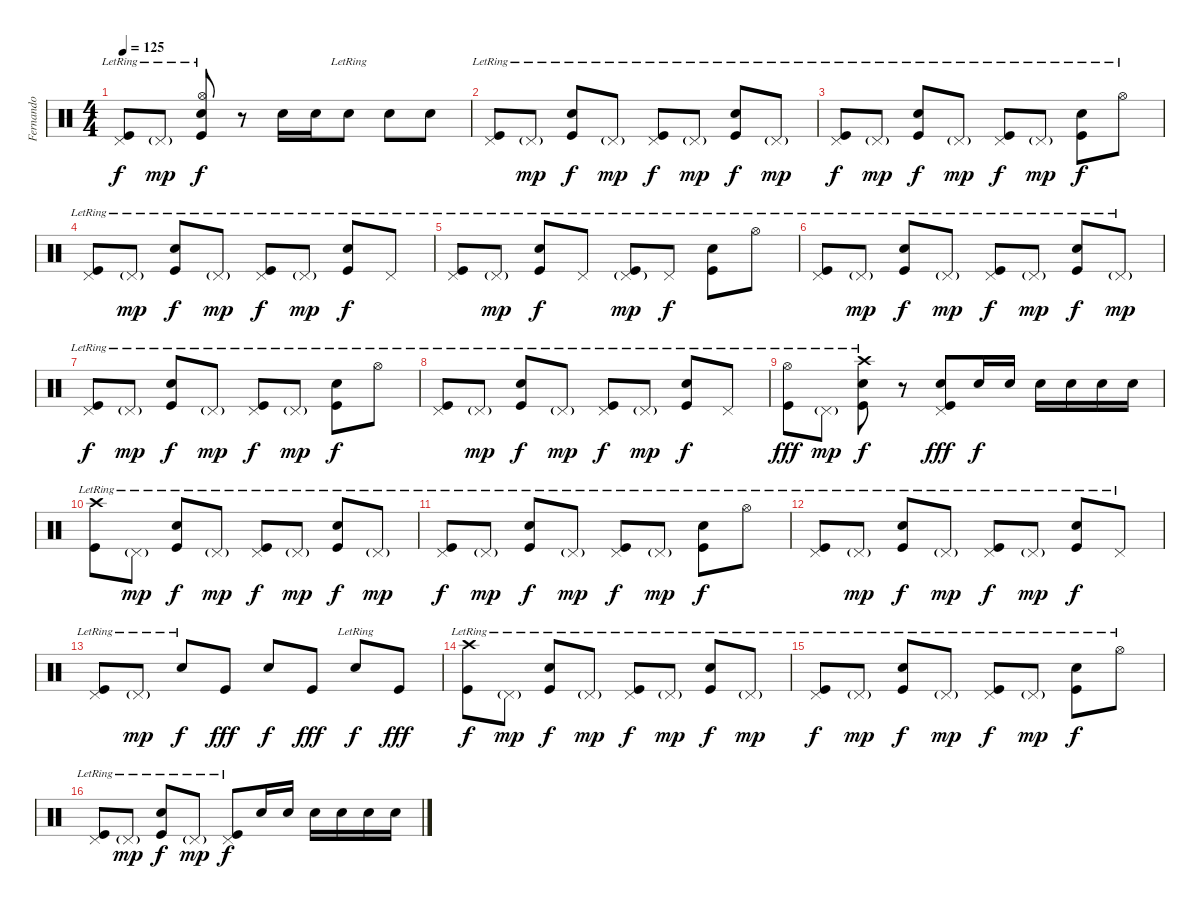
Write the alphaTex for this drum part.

\track ("Fernando" "Fernando") {instrument percussion}
\staff {score}
\articulation defaults
\ts (4 4)
\tempo 125
\clef neutral
\ks c
("Pedal Hi-Hat (hit)"{lr} "Kick (hit)"{lr}).8{dy f} "Pedal Hi-Hat (hit)"{g lr}.8{dy mp} ("Hi-Hat (open)" "Electric Snare (hit)"{lr} "Kick (hit)"{lr}).8{dy f} r.8 "Electric Snare (hit)".16 "Electric Snare (hit)".16 "Electric Snare (hit)"{lr}.8 "Electric Snare (hit)".8 "Electric Snare (hit)".8 |
("Pedal Hi-Hat (hit)"{lr} "Kick (hit)"{lr}).8 "Pedal Hi-Hat (hit)"{g lr}.8{dy mp} ("Electric Snare (hit)"{lr} "Kick (hit)"{lr}).8{dy f} "Pedal Hi-Hat (hit)"{g lr}.8{dy mp} ("Pedal Hi-Hat (hit)"{lr} "Kick (hit)"{lr}).8{dy f} "Pedal Hi-Hat (hit)"{g lr}.8{dy mp} ("Electric Snare (hit)"{lr} "Kick (hit)"{lr}).8{dy f} "Pedal Hi-Hat (hit)"{g lr}.8{dy mp} |
("Pedal Hi-Hat (hit)"{lr} "Kick (hit)"{lr}).8{dy f} "Pedal Hi-Hat (hit)"{g lr}.8{dy mp} ("Electric Snare (hit)"{lr} "Kick (hit)"{lr}).8{dy f} "Pedal Hi-Hat (hit)"{g lr}.8{dy mp} ("Pedal Hi-Hat (hit)"{lr} "Kick (hit)"{lr}).8{dy f} "Pedal Hi-Hat (hit)"{g lr}.8{dy mp} ("Electric Snare (hit)"{lr} "Kick (hit)"{lr}).8{dy f} "Hi-Hat (open)"{lr}.8 |
("Pedal Hi-Hat (hit)"{lr} "Kick (hit)"{lr}).8 "Pedal Hi-Hat (hit)"{g lr}.8{dy mp} ("Electric Snare (hit)"{lr} "Kick (hit)"{lr}).8{dy f} "Pedal Hi-Hat (hit)"{g lr}.8{dy mp} ("Pedal Hi-Hat (hit)"{lr} "Kick (hit)"{lr}).8{dy f} "Pedal Hi-Hat (hit)"{g lr}.8{dy mp} ("Electric Snare (hit)"{lr} "Kick (hit)"{lr}).8{dy f} "Pedal Hi-Hat (hit)"{lr}.8 |
("Pedal Hi-Hat (hit)"{lr} "Kick (hit)"{lr}).8 "Pedal Hi-Hat (hit)"{g lr}.8{dy mp} ("Electric Snare (hit)"{lr} "Kick (hit)"{lr}).8{dy f} "Pedal Hi-Hat (hit)"{lr}.8 ("Pedal Hi-Hat (hit)"{g lr} "Kick (hit)"{lr}).8{dy mp} "Pedal Hi-Hat (hit)"{lr}.8{dy f} ("Electric Snare (hit)"{lr} "Kick (hit)"{lr}).8 "Hi-Hat (open)"{lr}.8 |
("Pedal Hi-Hat (hit)"{lr} "Kick (hit)"{lr}).8 "Pedal Hi-Hat (hit)"{g lr}.8{dy mp} ("Electric Snare (hit)"{lr} "Kick (hit)"{lr}).8{dy f} "Pedal Hi-Hat (hit)"{g lr}.8{dy mp} ("Pedal Hi-Hat (hit)"{lr} "Kick (hit)"{lr}).8{dy f} "Pedal Hi-Hat (hit)"{g lr}.8{dy mp} ("Electric Snare (hit)"{lr} "Kick (hit)"{lr}).8{dy f} "Pedal Hi-Hat (hit)"{g lr}.8{dy mp} |
("Pedal Hi-Hat (hit)"{lr} "Kick (hit)"{lr}).8{dy f} "Pedal Hi-Hat (hit)"{g lr}.8{dy mp} ("Electric Snare (hit)"{lr} "Kick (hit)"{lr}).8{dy f} "Pedal Hi-Hat (hit)"{g lr}.8{dy mp} ("Pedal Hi-Hat (hit)"{lr} "Kick (hit)"{lr}).8{dy f} "Pedal Hi-Hat (hit)"{g lr}.8{dy mp} ("Electric Snare (hit)"{lr} "Kick (hit)"{lr}).8{dy f} "Hi-Hat (open)"{lr}.8 |
("Pedal Hi-Hat (hit)"{lr} "Kick (hit)"{lr}).8 "Pedal Hi-Hat (hit)"{g lr}.8{dy mp} ("Electric Snare (hit)"{lr} "Kick (hit)"{lr}).8{dy f} "Pedal Hi-Hat (hit)"{g lr}.8{dy mp} ("Pedal Hi-Hat (hit)"{lr} "Kick (hit)"{lr}).8{dy f} "Pedal Hi-Hat (hit)"{g lr}.8{dy mp} ("Electric Snare (hit)"{lr} "Kick (hit)"{lr}).8{dy f} "Pedal Hi-Hat (hit)"{lr}.8 |
("Hi-Hat (open)"{lr} "Kick (hit)"{lr}).8{dy fff} "Pedal Hi-Hat (hit)"{g lr}.8{dy mp} ("Crash high (hit)" "Electric Snare (hit)"{lr} "Kick (hit)"{lr}).8{dy f} r.8 ("Pedal Hi-Hat (hit)" "Electric Snare (hit)" "Kick (hit)").8{dy fff} "Electric Snare (hit)".16{dy f} "Electric Snare (hit)".16 "Electric Snare (hit)".16 "Electric Snare (hit)".16 "Electric Snare (hit)".16 "Electric Snare (hit)".16 |
("Crash high (hit)"{lr} "Kick (hit)"{lr}).8 "Pedal Hi-Hat (hit)"{g lr}.8{dy mp} ("Electric Snare (hit)"{lr} "Kick (hit)"{lr}).8{dy f} "Pedal Hi-Hat (hit)"{g lr}.8{dy mp} ("Pedal Hi-Hat (hit)"{lr} "Kick (hit)"{lr}).8{dy f} "Pedal Hi-Hat (hit)"{g lr}.8{dy mp} ("Electric Snare (hit)"{lr} "Kick (hit)"{lr}).8{dy f} "Pedal Hi-Hat (hit)"{g lr}.8{dy mp} |
("Pedal Hi-Hat (hit)"{lr} "Kick (hit)"{lr}).8{dy f} "Pedal Hi-Hat (hit)"{g lr}.8{dy mp} ("Electric Snare (hit)"{lr} "Kick (hit)"{lr}).8{dy f} "Pedal Hi-Hat (hit)"{g lr}.8{dy mp} ("Pedal Hi-Hat (hit)"{lr} "Kick (hit)"{lr}).8{dy f} "Pedal Hi-Hat (hit)"{g lr}.8{dy mp} ("Electric Snare (hit)"{lr} "Kick (hit)"{lr}).8{dy f} "Hi-Hat (open)"{lr}.8 |
("Pedal Hi-Hat (hit)"{lr} "Kick (hit)"{lr}).8 "Pedal Hi-Hat (hit)"{g lr}.8{dy mp} ("Electric Snare (hit)"{lr} "Kick (hit)"{lr}).8{dy f} "Pedal Hi-Hat (hit)"{g lr}.8{dy mp} ("Pedal Hi-Hat (hit)"{lr} "Kick (hit)"{lr}).8{dy f} "Pedal Hi-Hat (hit)"{g lr}.8{dy mp} ("Electric Snare (hit)"{lr} "Kick (hit)"{lr}).8{dy f} "Pedal Hi-Hat (hit)"{lr}.8 |
("Pedal Hi-Hat (hit)"{lr} "Kick (hit)"{lr}).8 "Pedal Hi-Hat (hit)"{g lr}.8{dy mp} "Electric Snare (hit)"{lr}.8{dy f} "Kick (hit)".8{dy fff} "Electric Snare (hit)".8{dy f} "Kick (hit)".8{dy fff} "Electric Snare (hit)"{lr}.8{dy f} "Kick (hit)".8{dy fff} |
("Crash high (hit)" "Kick (hit)"{lr}).8{dy f} "Pedal Hi-Hat (hit)"{g lr}.8{dy mp} ("Electric Snare (hit)"{lr} "Kick (hit)"{lr}).8{dy f} "Pedal Hi-Hat (hit)"{g lr}.8{dy mp} ("Pedal Hi-Hat (hit)"{lr} "Kick (hit)"{lr}).8{dy f} "Pedal Hi-Hat (hit)"{g lr}.8{dy mp} ("Electric Snare (hit)"{lr} "Kick (hit)"{lr}).8{dy f} "Pedal Hi-Hat (hit)"{g lr}.8{dy mp} |
("Pedal Hi-Hat (hit)"{lr} "Kick (hit)"{lr}).8{dy f} "Pedal Hi-Hat (hit)"{g lr}.8{dy mp} ("Electric Snare (hit)"{lr} "Kick (hit)"{lr}).8{dy f} "Pedal Hi-Hat (hit)"{g lr}.8{dy mp} ("Pedal Hi-Hat (hit)"{lr} "Kick (hit)"{lr}).8{dy f} "Pedal Hi-Hat (hit)"{g lr}.8{dy mp} ("Electric Snare (hit)"{lr} "Kick (hit)"{lr}).8{dy f} "Hi-Hat (open)"{lr}.8 |
("Pedal Hi-Hat (hit)"{lr} "Kick (hit)"{lr}).8 "Pedal Hi-Hat (hit)"{g lr}.8{dy mp} ("Electric Snare (hit)"{lr} "Kick (hit)"{lr}).8{dy f} "Pedal Hi-Hat (hit)"{g lr}.8{dy mp} ("Pedal Hi-Hat (hit)"{lr} "Kick (hit)"{lr}).8{dy f} "Electric Snare (hit)".16 "Electric Snare (hit)".16 "Electric Snare (hit)".16 "Electric Snare (hit)".16 "Electric Snare (hit)".16 "Electric Snare (hit)".16
